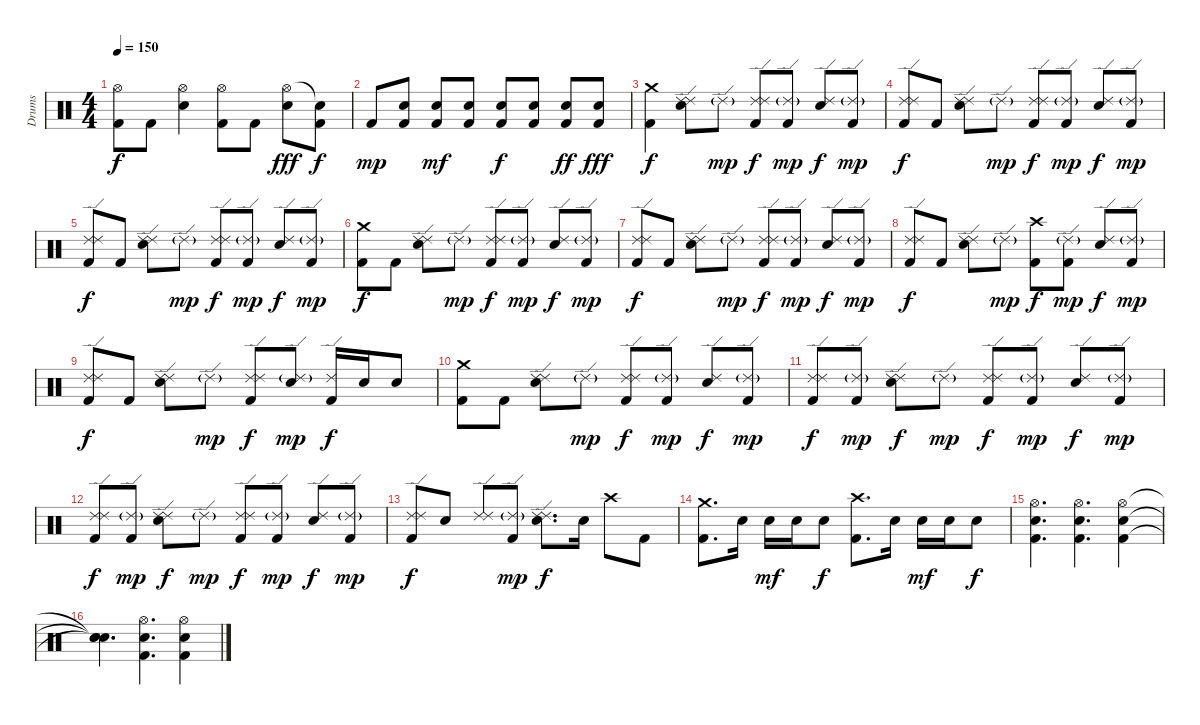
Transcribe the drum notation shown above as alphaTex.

\track ("Drums" "Drums") {instrument percussion}
\staff {score}
\articulation defaults
\ts (4 4)
\tempo 150
\clef neutral
\ks c
("Hi-Hat (open)" "Kick (hit) 2").8{dy f} "Kick (hit) 2".8 ("Hi-Hat (open)" "Electric Snare (hit)").4 ("Hi-Hat (open)" "Kick (hit) 2").8 "Kick (hit) 2".8 ("Hi-Hat (open)" "Electric Snare (hit)").8{dy fff} ("Snare (hit)"{t} "Kick (hit) 2").8{dy f} |
"Kick (hit) 2".8{dy mp} ("Electric Snare (hit)" "Kick (hit) 2").8 ("Electric Snare (hit)" "Kick (hit) 2").8{dy mf} ("Electric Snare (hit)" "Kick (hit) 2").8 ("Electric Snare (hit)" "Kick (hit) 2").8{dy f} ("Electric Snare (hit)" "Kick (hit) 2").8 ("Electric Snare (hit)" "Kick (hit) 2").8{dy ff} ("Electric Snare (hit)" "Kick (hit) 2").8{dy fff} |
("Crash medium (hit)" "Kick (hit) 2").4{dy f} ("Ride (edge) 2" "Ride (edge) 2" "Electric Snare (hit)").8 "Ride (edge) 2"{g}.8{dy mp} ("Ride (edge) 2" "Ride (edge) 2" "Kick (hit) 2").8{dy f} ("Ride (edge) 2"{g} "Kick (hit) 2").8{dy mp} ("Ride (edge) 2" "Electric Snare (hit)").8{dy f} ("Ride (edge) 2"{g} "Kick (hit) 2").8{dy mp} |
("Ride (edge) 2" "Ride (edge) 2" "Kick (hit) 2").8{dy f} "Kick (hit) 2".8 ("Ride (edge) 2" "Ride (edge) 2" "Electric Snare (hit)").8 "Ride (edge) 2"{g}.8{dy mp} ("Ride (edge) 2" "Ride (edge) 2" "Kick (hit) 2").8{dy f} ("Ride (edge) 2"{g} "Kick (hit) 2").8{dy mp} ("Ride (edge) 2" "Electric Snare (hit)").8{dy f} ("Ride (edge) 2"{g} "Kick (hit) 2").8{dy mp} |
("Ride (edge) 2" "Ride (edge) 2" "Kick (hit) 2").8{dy f} "Kick (hit) 2".8 ("Ride (edge) 2" "Ride (edge) 2" "Electric Snare (hit)").8 "Ride (edge) 2"{g}.8{dy mp} ("Ride (edge) 2" "Ride (edge) 2" "Kick (hit) 2").8{dy f} ("Ride (edge) 2"{g} "Kick (hit) 2").8{dy mp} ("Ride (edge) 2" "Electric Snare (hit)").8{dy f} ("Ride (edge) 2"{g} "Kick (hit) 2").8{dy mp} |
("Crash medium (hit)" "Kick (hit) 2").8{dy f} "Kick (hit) 2".8 ("Ride (edge) 2" "Ride (edge) 2" "Electric Snare (hit)").8 "Ride (edge) 2"{g}.8{dy mp} ("Ride (edge) 2" "Ride (edge) 2" "Kick (hit) 2").8{dy f} ("Ride (edge) 2"{g} "Kick (hit) 2").8{dy mp} ("Ride (edge) 2" "Electric Snare (hit)").8{dy f} ("Ride (edge) 2"{g} "Kick (hit) 2").8{dy mp} |
("Ride (edge) 2" "Ride (edge) 2" "Kick (hit) 2").8{dy f} "Kick (hit) 2".8 ("Ride (edge) 2" "Ride (edge) 2" "Electric Snare (hit)").8 "Ride (edge) 2"{g}.8{dy mp} ("Ride (edge) 2" "Ride (edge) 2" "Kick (hit) 2").8{dy f} ("Ride (edge) 2"{g} "Kick (hit) 2").8{dy mp} ("Ride (edge) 2" "Electric Snare (hit)").8{dy f} ("Ride (edge) 2"{g} "Kick (hit) 2").8{dy mp} |
("Ride (edge) 2" "Ride (edge) 2" "Kick (hit) 2").8{dy f} "Kick (hit) 2".8 ("Ride (edge) 2" "Ride (edge) 2" "Electric Snare (hit)").8 "Ride (edge) 2"{g}.8{dy mp} ("Crash high (hit)" "Kick (hit) 2").8{dy f} ("Ride (edge) 2"{g} "Kick (hit) 2").8{dy mp} ("Ride (edge) 2" "Electric Snare (hit)").8{dy f} ("Ride (edge) 2"{g} "Kick (hit) 2").8{dy mp} |
("Ride (edge) 2" "Ride (edge) 2" "Kick (hit) 2").8{dy f} "Kick (hit) 2".8 ("Ride (edge) 2" "Ride (edge) 2" "Electric Snare (hit)").8 "Ride (edge) 2"{g}.8{dy mp} ("Ride (edge) 2" "Ride (edge) 2" "Kick (hit) 2").8{dy f} ("Ride (edge) 2"{g} "Electric Snare (hit)").8{dy mp} ("Ride (edge) 2" "Kick (hit) 2").16{dy f} "Electric Snare (hit)".16 "Electric Snare (hit)".8 |
("Crash medium (hit)" "Kick (hit) 2").8 "Kick (hit) 2".8 ("Ride (edge) 2" "Ride (edge) 2" "Electric Snare (hit)").8 "Ride (edge) 2"{g}.8{dy mp} ("Ride (edge) 2" "Ride (edge) 2" "Kick (hit) 2").8{dy f} ("Ride (edge) 2"{g} "Kick (hit) 2").8{dy mp} ("Ride (edge) 2" "Electric Snare (hit)").8{dy f} ("Ride (edge) 2"{g} "Kick (hit) 2").8{dy mp} |
("Ride (edge) 2" "Ride (edge) 2" "Kick (hit) 2").8{dy f} ("Ride (edge) 2"{g} "Kick (hit) 2").8{dy mp} ("Ride (edge) 2" "Ride (edge) 2" "Electric Snare (hit)").8{dy f} "Ride (edge) 2"{g}.8{dy mp} ("Ride (edge) 2" "Ride (edge) 2" "Kick (hit) 2").8{dy f} ("Ride (edge) 2"{g} "Kick (hit) 2").8{dy mp} ("Ride (edge) 2" "Electric Snare (hit)").8{dy f} ("Ride (edge) 2"{g} "Kick (hit) 2").8{dy mp} |
("Ride (edge) 2" "Ride (edge) 2" "Kick (hit) 2").8{dy f} ("Ride (edge) 2"{g} "Kick (hit) 2").8{dy mp} ("Ride (edge) 2" "Ride (edge) 2" "Electric Snare (hit)").8{dy f} "Ride (edge) 2"{g}.8{dy mp} ("Ride (edge) 2" "Ride (edge) 2" "Kick (hit) 2").8{dy f} ("Ride (edge) 2"{g} "Kick (hit) 2").8{dy mp} ("Ride (edge) 2" "Electric Snare (hit)").8{dy f} ("Ride (edge) 2"{g} "Kick (hit) 2").8{dy mp} |
("Ride (edge) 2" "Ride (edge) 2" "Kick (hit) 2").8{dy f} "Electric Snare (hit)".8 ("Ride (edge) 2" "Ride (edge) 2").8 ("Ride (edge) 2"{g} "Kick (hit) 2").8{dy mp} ("Ride (edge) 2" "Ride (edge) 2" "Electric Snare (hit)").8{d dy f} "Electric Snare (hit)".16 "Crash high (hit)".8 "Kick (hit) 2".8 |
("Crash medium (hit)" "Kick (hit) 2").8{d} "Electric Snare (hit)".16 "Electric Snare (hit)".16{dy mf} "Electric Snare (hit)".16 "Electric Snare (hit)".8{dy f} ("Crash high (hit)" "Kick (hit) 2").8{d} "Electric Snare (hit)".16 "Electric Snare (hit)".16{dy mf} "Electric Snare (hit)".16 "Electric Snare (hit)".8{dy f} |
("Hi-Hat (open)" "Electric Snare (hit)" "Kick (hit) 2").4{d} ("Hi-Hat (open)" "Electric Snare (hit)" "Kick (hit) 2").4{d} ("Hi-Hat (open)" "Electric Snare (hit)" "Kick (hit) 2").4 |
("Snare (hit)"{t} "Snare (hit)"{t} "Snare (hit)"{t}).4{d} ("Hi-Hat (open)" "Electric Snare (hit)" "Kick (hit) 2").4{d} ("Hi-Hat (open)" "Electric Snare (hit)" "Kick (hit) 2").4
